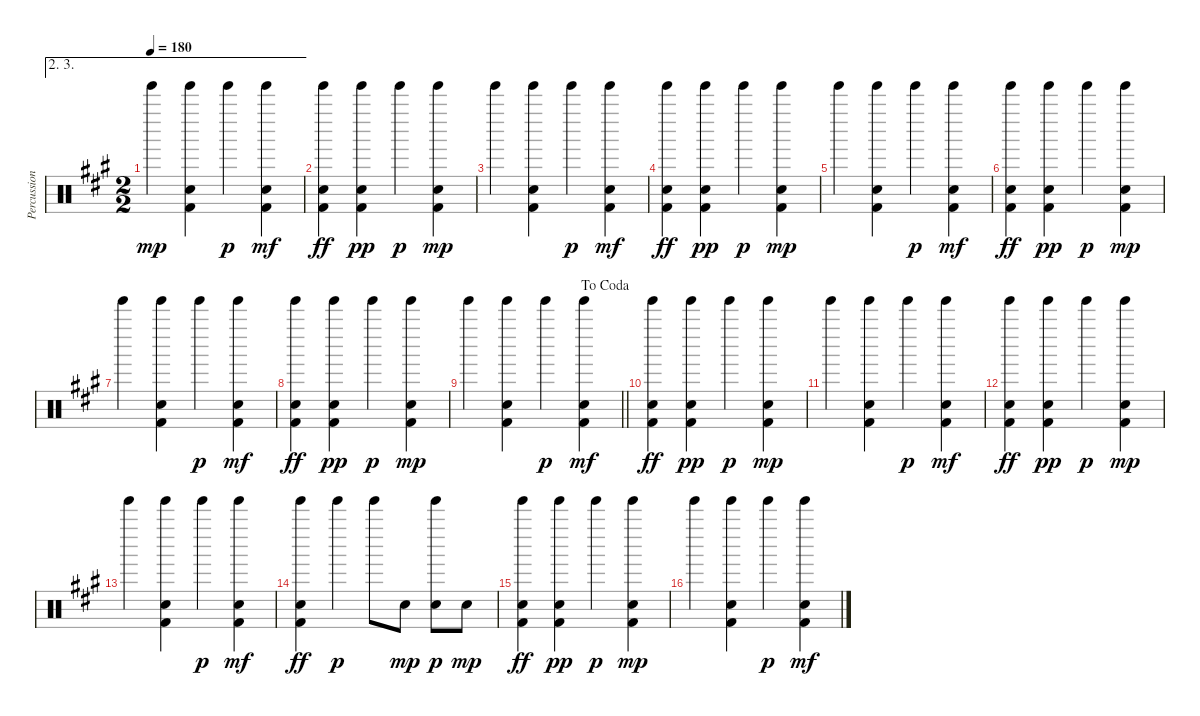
\track ("Percussion" "Percussion") {instrument percussion}
\staff {score}
\articulation defaults
\ae (2 3)
\ts (2 2)
\tempo 180
\clef neutral
\ks a "Tinkle Bell (hit)".4{dy mp}
("Tinkle Bell (hit)" "Electric Snare (hit)" "Kick (hit) 2").4 "Tinkle Bell (hit)".4{dy p} ("Tinkle Bell (hit)" "Electric Snare (hit)" "Kick (hit) 2").4{dy mf} |
("Tinkle Bell (hit)" "Electric Snare (hit)" "Kick (hit) 2").4{dy ff} ("Tinkle Bell (hit)" "Electric Snare (hit)" "Kick (hit) 2").4{dy pp} "Tinkle Bell (hit)".4{dy p} ("Tinkle Bell (hit)" "Electric Snare (hit)" "Kick (hit) 2").4{dy mp} |
"Tinkle Bell (hit)".4 ("Tinkle Bell (hit)" "Electric Snare (hit)" "Kick (hit) 2").4 "Tinkle Bell (hit)".4{dy p} ("Tinkle Bell (hit)" "Electric Snare (hit)" "Kick (hit) 2").4{dy mf} |
("Tinkle Bell (hit)" "Electric Snare (hit)" "Kick (hit) 2").4{dy ff} ("Tinkle Bell (hit)" "Electric Snare (hit)" "Kick (hit) 2").4{dy pp} "Tinkle Bell (hit)".4{dy p} ("Tinkle Bell (hit)" "Electric Snare (hit)" "Kick (hit) 2").4{dy mp} |
"Tinkle Bell (hit)".4 ("Tinkle Bell (hit)" "Electric Snare (hit)" "Kick (hit) 2").4 "Tinkle Bell (hit)".4{dy p} ("Tinkle Bell (hit)" "Electric Snare (hit)" "Kick (hit) 2").4{dy mf} |
("Tinkle Bell (hit)" "Electric Snare (hit)" "Kick (hit) 2").4{dy ff} ("Tinkle Bell (hit)" "Electric Snare (hit)" "Kick (hit) 2").4{dy pp} "Tinkle Bell (hit)".4{dy p} ("Tinkle Bell (hit)" "Electric Snare (hit)" "Kick (hit) 2").4{dy mp} |
"Tinkle Bell (hit)".4 ("Tinkle Bell (hit)" "Electric Snare (hit)" "Kick (hit) 2").4 "Tinkle Bell (hit)".4{dy p} ("Tinkle Bell (hit)" "Electric Snare (hit)" "Kick (hit) 2").4{dy mf} |
("Tinkle Bell (hit)" "Electric Snare (hit)" "Kick (hit) 2").4{dy ff} ("Tinkle Bell (hit)" "Electric Snare (hit)" "Kick (hit) 2").4{dy pp} "Tinkle Bell (hit)".4{dy p} ("Tinkle Bell (hit)" "Electric Snare (hit)" "Kick (hit) 2").4{dy mp} |
\jump dacoda
\barLineRight lightlight "Tinkle Bell (hit)".4
("Tinkle Bell (hit)" "Electric Snare (hit)" "Kick (hit) 2").4 "Tinkle Bell (hit)".4{dy p} ("Tinkle Bell (hit)" "Electric Snare (hit)" "Kick (hit) 2").4{dy mf} |
("Tinkle Bell (hit)" "Electric Snare (hit)" "Kick (hit) 2").4{dy ff} ("Tinkle Bell (hit)" "Electric Snare (hit)" "Kick (hit) 2").4{dy pp} "Tinkle Bell (hit)".4{dy p} ("Tinkle Bell (hit)" "Electric Snare (hit)" "Kick (hit) 2").4{dy mp} |
"Tinkle Bell (hit)".4 ("Tinkle Bell (hit)" "Electric Snare (hit)" "Kick (hit) 2").4 "Tinkle Bell (hit)".4{dy p} ("Tinkle Bell (hit)" "Electric Snare (hit)" "Kick (hit) 2").4{dy mf} |
("Tinkle Bell (hit)" "Electric Snare (hit)" "Kick (hit) 2").4{dy ff} ("Tinkle Bell (hit)" "Electric Snare (hit)" "Kick (hit) 2").4{dy pp} "Tinkle Bell (hit)".4{dy p} ("Tinkle Bell (hit)" "Electric Snare (hit)" "Kick (hit) 2").4{dy mp} |
"Tinkle Bell (hit)".4 ("Tinkle Bell (hit)" "Electric Snare (hit)" "Kick (hit) 2").4 "Tinkle Bell (hit)".4{dy p} ("Tinkle Bell (hit)" "Electric Snare (hit)" "Kick (hit) 2").4{dy mf} |
("Tinkle Bell (hit)" "Electric Snare (hit)" "Kick (hit) 2").4{dy ff} "Tinkle Bell (hit)".4{dy p} "Tinkle Bell (hit)".8 "Electric Snare (hit)".8{dy mp} ("Tinkle Bell (hit)" "Electric Snare (hit)").8{dy p} "Electric Snare (hit)".8{dy mp} |
("Tinkle Bell (hit)" "Electric Snare (hit)" "Kick (hit) 2").4{dy ff} ("Tinkle Bell (hit)" "Electric Snare (hit)" "Kick (hit) 2").4{dy pp} "Tinkle Bell (hit)".4{dy p} ("Tinkle Bell (hit)" "Electric Snare (hit)" "Kick (hit) 2").4{dy mp} |
"Tinkle Bell (hit)".4 ("Tinkle Bell (hit)" "Electric Snare (hit)" "Kick (hit) 2").4 "Tinkle Bell (hit)".4{dy p} ("Tinkle Bell (hit)" "Electric Snare (hit)" "Kick (hit) 2").4{dy mf}
